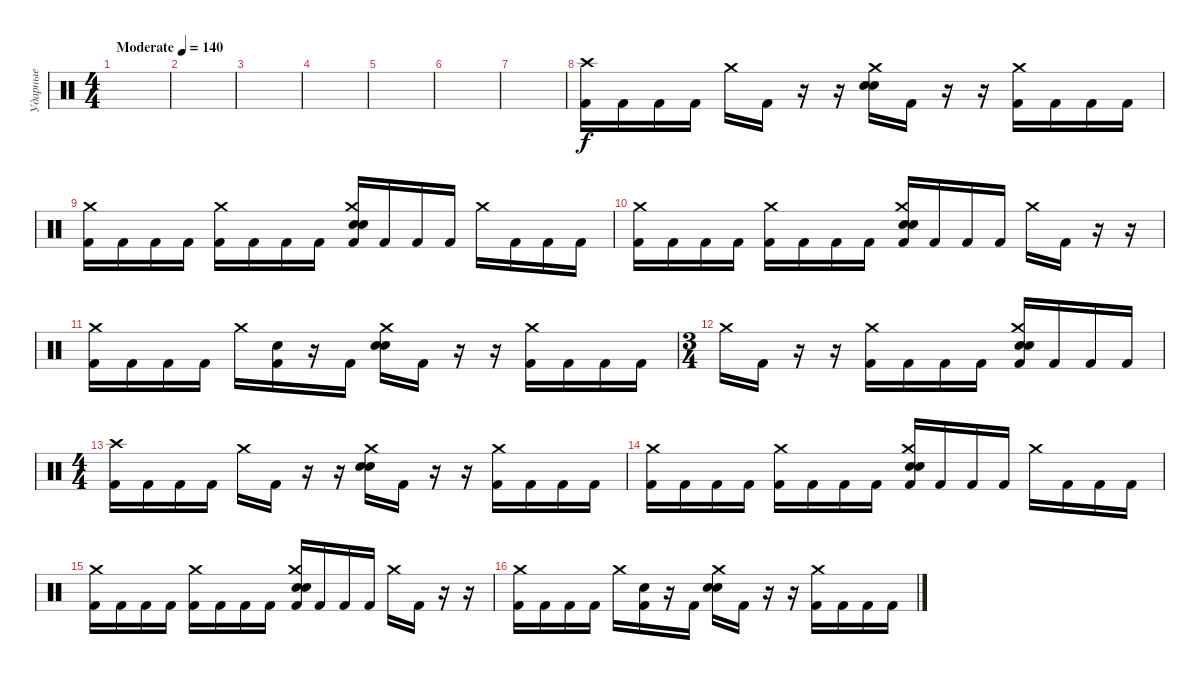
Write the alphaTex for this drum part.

\track ("Ударные" "Ударные") {instrument percussion}
\staff {score}
\articulation defaults
\ts (4 4)
\tempo (140 "Moderate")
\clef neutral
\ks c
|
|
|
|
|
|
|
("Crash high (hit)" "Kick (hit) 2").16 "Kick (hit) 2".16 "Kick (hit) 2".16 "Kick (hit) 2".16 "Crash medium (hit)".16 "Kick (hit) 2".16 r.16 r.16 ("Crash medium (hit)" "Electric Snare (hit)" "Snare (hit) 2").16 "Kick (hit) 2".16 r.16 r.16 ("Crash medium (hit)" "Kick (hit) 2").16 "Kick (hit) 2".16 "Kick (hit) 2".16 "Kick (hit) 2".16 |
("Crash medium (hit)" "Kick (hit) 2").16 "Kick (hit) 2".16 "Kick (hit) 2".16 "Kick (hit) 2".16 ("Crash medium (hit)" "Kick (hit) 2").16 "Kick (hit) 2".16 "Kick (hit) 2".16 "Kick (hit) 2".16 ("Crash medium (hit)" "Electric Snare (hit)" "Snare (hit) 2" "Kick (hit) 2").16 "Kick (hit) 2".16 "Kick (hit) 2".16 "Kick (hit) 2".16 "Crash medium (hit)".16 "Kick (hit) 2".16 "Kick (hit) 2".16 "Kick (hit) 2".16 |
("Crash medium (hit)" "Kick (hit) 2").16 "Kick (hit) 2".16 "Kick (hit) 2".16 "Kick (hit) 2".16 ("Crash medium (hit)" "Kick (hit) 2").16 "Kick (hit) 2".16 "Kick (hit) 2".16 "Kick (hit) 2".16 ("Crash medium (hit)" "Electric Snare (hit)" "Snare (hit) 2" "Kick (hit) 2").16 "Kick (hit) 2".16 "Kick (hit) 2".16 "Kick (hit) 2".16 "Crash medium (hit)".16 "Kick (hit) 2".16 r.16 r.16 |
("Crash medium (hit)" "Kick (hit) 2").16 "Kick (hit) 2".16 "Kick (hit) 2".16 "Kick (hit) 2".16 "Crash medium (hit)".16 ("Snare (hit)" "Kick (hit) 2").16 r.16 "Kick (hit) 2".16 ("Crash medium (hit)" "Electric Snare (hit)" "Snare (hit) 2").16 "Kick (hit) 2".16 r.16 r.16 ("Crash medium (hit)" "Kick (hit) 2").16 "Kick (hit) 2".16 "Kick (hit) 2".16 "Kick (hit) 2".16 |
\ts (3 4)
"Crash medium (hit)".16 "Kick (hit) 2".16 r.16 r.16 ("Crash medium (hit)" "Kick (hit) 2").16 "Kick (hit) 2".16 "Kick (hit) 2".16 "Kick (hit) 2".16 ("Crash medium (hit)" "Electric Snare (hit)" "Snare (hit) 2" "Kick (hit) 2").16 "Kick (hit) 2".16 "Kick (hit) 2".16 "Kick (hit) 2".16 |
\ts (4 4)
("Crash high (hit)" "Kick (hit) 2").16 "Kick (hit) 2".16 "Kick (hit) 2".16 "Kick (hit) 2".16 "Crash medium (hit)".16 "Kick (hit) 2".16 r.16 r.16 ("Crash medium (hit)" "Electric Snare (hit)" "Snare (hit) 2").16 "Kick (hit) 2".16 r.16 r.16 ("Crash medium (hit)" "Kick (hit) 2").16 "Kick (hit) 2".16 "Kick (hit) 2".16 "Kick (hit) 2".16 |
("Crash medium (hit)" "Kick (hit) 2").16 "Kick (hit) 2".16 "Kick (hit) 2".16 "Kick (hit) 2".16 ("Crash medium (hit)" "Kick (hit) 2").16 "Kick (hit) 2".16 "Kick (hit) 2".16 "Kick (hit) 2".16 ("Crash medium (hit)" "Electric Snare (hit)" "Snare (hit) 2" "Kick (hit) 2").16 "Kick (hit) 2".16 "Kick (hit) 2".16 "Kick (hit) 2".16 "Crash medium (hit)".16 "Kick (hit) 2".16 "Kick (hit) 2".16 "Kick (hit) 2".16 |
("Crash medium (hit)" "Kick (hit) 2").16 "Kick (hit) 2".16 "Kick (hit) 2".16 "Kick (hit) 2".16 ("Crash medium (hit)" "Kick (hit) 2").16 "Kick (hit) 2".16 "Kick (hit) 2".16 "Kick (hit) 2".16 ("Crash medium (hit)" "Electric Snare (hit)" "Snare (hit) 2" "Kick (hit) 2").16 "Kick (hit) 2".16 "Kick (hit) 2".16 "Kick (hit) 2".16 "Crash medium (hit)".16 "Kick (hit) 2".16 r.16 r.16 |
("Crash medium (hit)" "Kick (hit) 2").16 "Kick (hit) 2".16 "Kick (hit) 2".16 "Kick (hit) 2".16 "Crash medium (hit)".16 ("Snare (hit)" "Kick (hit) 2").16 r.16 "Kick (hit) 2".16 ("Crash medium (hit)" "Electric Snare (hit)" "Snare (hit) 2").16 "Kick (hit) 2".16 r.16 r.16 ("Crash medium (hit)" "Kick (hit) 2").16 "Kick (hit) 2".16 "Kick (hit) 2".16 "Kick (hit) 2".16
